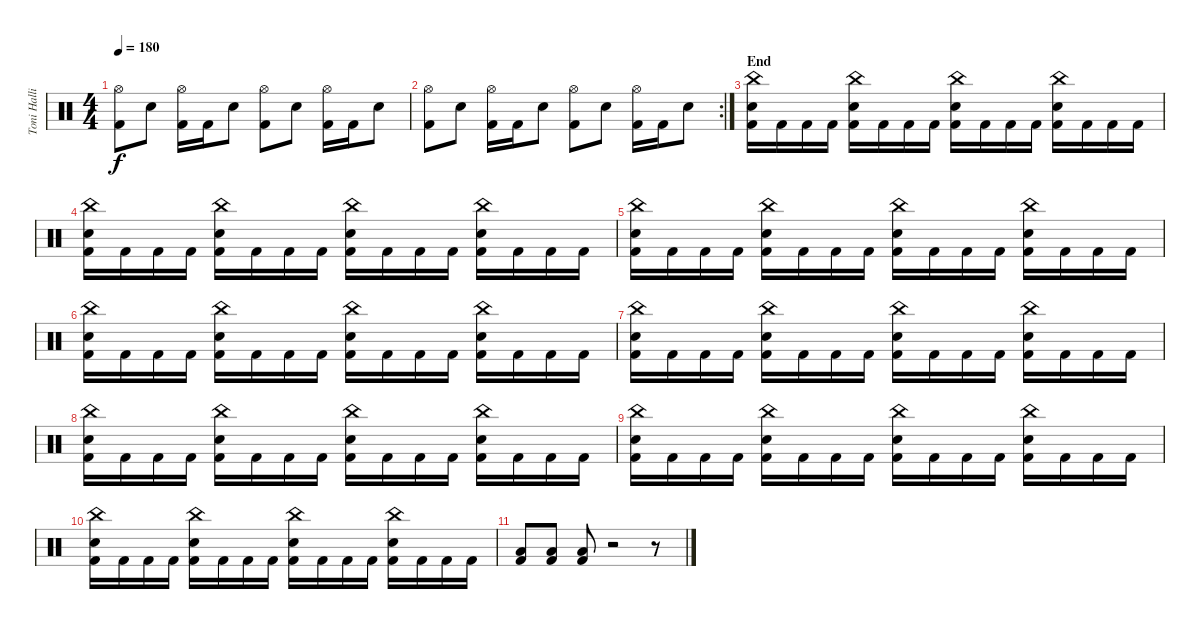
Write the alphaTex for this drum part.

\track ("Toni Hallio" "Toni Halli") {instrument percussion}
\staff {score}
\articulation defaults
\ts (4 4)
\tempo 180
\clef neutral
\ks c
("Hi-Hat (open)" "Kick (hit) 2").8{dy f} "Electric Snare (hit)".8 ("Hi-Hat (open)" "Kick (hit) 2").16 "Kick (hit) 2".16 "Electric Snare (hit)".8 ("Hi-Hat (open)" "Kick (hit) 2").8 "Electric Snare (hit)".8 ("Hi-Hat (open)" "Kick (hit) 2").16 "Kick (hit) 2".16 "Electric Snare (hit)".8 |
\rc 2
("Hi-Hat (open)" "Kick (hit) 2").8 "Electric Snare (hit)".8 ("Hi-Hat (open)" "Kick (hit) 2").16 "Kick (hit) 2".16 "Electric Snare (hit)".8 ("Hi-Hat (open)" "Kick (hit) 2").8 "Electric Snare (hit)".8 ("Hi-Hat (open)" "Kick (hit) 2").16 "Kick (hit) 2".16 "Electric Snare (hit)".8 |
\section ("" "End")
("China (hit)" "Electric Snare (hit)" "Kick (hit) 2").16 "Kick (hit) 2".16 "Kick (hit) 2".16 "Kick (hit) 2".16 ("China (hit)" "Electric Snare (hit)" "Kick (hit) 2").16 "Kick (hit) 2".16 "Kick (hit) 2".16 "Kick (hit) 2".16 ("China (hit)" "Electric Snare (hit)" "Kick (hit) 2").16 "Kick (hit) 2".16 "Kick (hit) 2".16 "Kick (hit) 2".16 ("China (hit)" "Electric Snare (hit)" "Kick (hit) 2").16 "Kick (hit) 2".16 "Kick (hit) 2".16 "Kick (hit) 2".16 |
("China (hit)" "Electric Snare (hit)" "Kick (hit) 2").16 "Kick (hit) 2".16 "Kick (hit) 2".16 "Kick (hit) 2".16 ("China (hit)" "Electric Snare (hit)" "Kick (hit) 2").16 "Kick (hit) 2".16 "Kick (hit) 2".16 "Kick (hit) 2".16 ("China (hit)" "Electric Snare (hit)" "Kick (hit) 2").16 "Kick (hit) 2".16 "Kick (hit) 2".16 "Kick (hit) 2".16 ("China (hit)" "Electric Snare (hit)" "Kick (hit) 2").16 "Kick (hit) 2".16 "Kick (hit) 2".16 "Kick (hit) 2".16 |
("China (hit)" "Electric Snare (hit)" "Kick (hit) 2").16 "Kick (hit) 2".16 "Kick (hit) 2".16 "Kick (hit) 2".16 ("China (hit)" "Electric Snare (hit)" "Kick (hit) 2").16 "Kick (hit) 2".16 "Kick (hit) 2".16 "Kick (hit) 2".16 ("China (hit)" "Electric Snare (hit)" "Kick (hit) 2").16 "Kick (hit) 2".16 "Kick (hit) 2".16 "Kick (hit) 2".16 ("China (hit)" "Electric Snare (hit)" "Kick (hit) 2").16 "Kick (hit) 2".16 "Kick (hit) 2".16 "Kick (hit) 2".16 |
("China (hit)" "Electric Snare (hit)" "Kick (hit) 2").16 "Kick (hit) 2".16 "Kick (hit) 2".16 "Kick (hit) 2".16 ("China (hit)" "Electric Snare (hit)" "Kick (hit) 2").16 "Kick (hit) 2".16 "Kick (hit) 2".16 "Kick (hit) 2".16 ("China (hit)" "Electric Snare (hit)" "Kick (hit) 2").16 "Kick (hit) 2".16 "Kick (hit) 2".16 "Kick (hit) 2".16 ("China (hit)" "Electric Snare (hit)" "Kick (hit) 2").16 "Kick (hit) 2".16 "Kick (hit) 2".16 "Kick (hit) 2".16 |
("China (hit)" "Electric Snare (hit)" "Kick (hit) 2").16 "Kick (hit) 2".16 "Kick (hit) 2".16 "Kick (hit) 2".16 ("China (hit)" "Electric Snare (hit)" "Kick (hit) 2").16 "Kick (hit) 2".16 "Kick (hit) 2".16 "Kick (hit) 2".16 ("China (hit)" "Electric Snare (hit)" "Kick (hit) 2").16 "Kick (hit) 2".16 "Kick (hit) 2".16 "Kick (hit) 2".16 ("China (hit)" "Electric Snare (hit)" "Kick (hit) 2").16 "Kick (hit) 2".16 "Kick (hit) 2".16 "Kick (hit) 2".16 |
("China (hit)" "Electric Snare (hit)" "Kick (hit) 2").16 "Kick (hit) 2".16 "Kick (hit) 2".16 "Kick (hit) 2".16 ("China (hit)" "Electric Snare (hit)" "Kick (hit) 2").16 "Kick (hit) 2".16 "Kick (hit) 2".16 "Kick (hit) 2".16 ("China (hit)" "Electric Snare (hit)" "Kick (hit) 2").16 "Kick (hit) 2".16 "Kick (hit) 2".16 "Kick (hit) 2".16 ("China (hit)" "Electric Snare (hit)" "Kick (hit) 2").16 "Kick (hit) 2".16 "Kick (hit) 2".16 "Kick (hit) 2".16 |
("China (hit)" "Electric Snare (hit)" "Kick (hit) 2").16 "Kick (hit) 2".16 "Kick (hit) 2".16 "Kick (hit) 2".16 ("China (hit)" "Electric Snare (hit)" "Kick (hit) 2").16 "Kick (hit) 2".16 "Kick (hit) 2".16 "Kick (hit) 2".16 ("China (hit)" "Electric Snare (hit)" "Kick (hit) 2").16 "Kick (hit) 2".16 "Kick (hit) 2".16 "Kick (hit) 2".16 ("China (hit)" "Electric Snare (hit)" "Kick (hit) 2").16 "Kick (hit) 2".16 "Kick (hit) 2".16 "Kick (hit) 2".16 |
("China (hit)" "Electric Snare (hit)" "Kick (hit) 2").16 "Kick (hit) 2".16 "Kick (hit) 2".16 "Kick (hit) 2".16 ("China (hit)" "Electric Snare (hit)" "Kick (hit) 2").16 "Kick (hit) 2".16 "Kick (hit) 2".16 "Kick (hit) 2".16 ("China (hit)" "Electric Snare (hit)" "Kick (hit) 2").16 "Kick (hit) 2".16 "Kick (hit) 2".16 "Kick (hit) 2".16 ("China (hit)" "Electric Snare (hit)" "Kick (hit) 2").16 "Kick (hit) 2".16 "Kick (hit) 2".16 "Kick (hit) 2".16 |
("Low Floor Tom (hit)" "Kick (hit) 2").8 ("Low Floor Tom (hit)" "Kick (hit) 2").8 ("Low Floor Tom (hit)" "Kick (hit) 2").8 r.2 r.8
